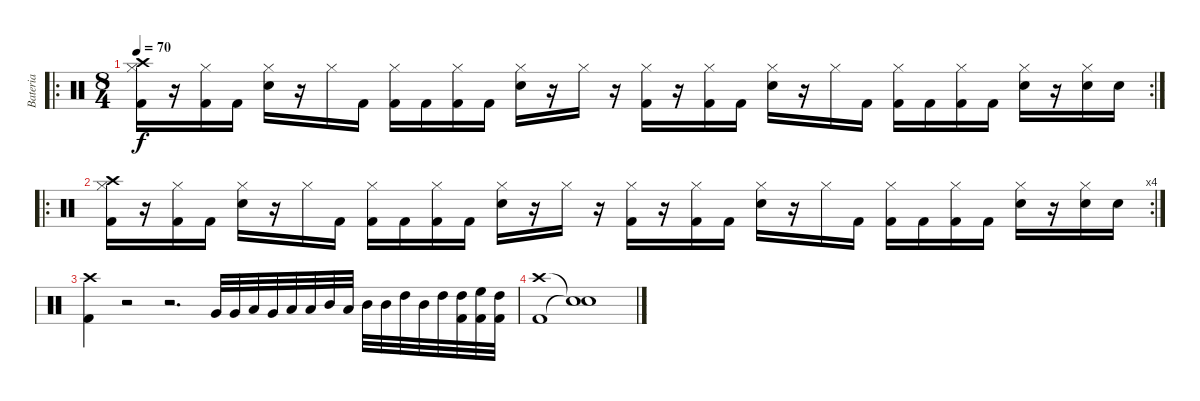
\track ("Bateria" "Bateria") {instrument percussion}
\staff {score}
\articulation defaults
\ro
\rc 2
\ts (8 4)
\tempo 70
\clef neutral
\ks c
("Crash high (hit)" "Hi-Hat (closed)" "Kick (hit) 2").16{dy f} r.16 ("Hi-Hat (closed)" "Kick (hit) 2").16 "Kick (hit) 2".16 ("Hi-Hat (closed)" "Snare (hit) 2").16 r.16 "Hi-Hat (closed)".16 "Kick (hit) 2".16 ("Hi-Hat (closed)" "Kick (hit) 2").16 "Kick (hit) 2".16 ("Hi-Hat (closed)" "Kick (hit) 2").16 "Kick (hit) 2".16 ("Hi-Hat (closed)" "Snare (hit) 2").16 r.16 "Hi-Hat (closed)".16 r.16 ("Hi-Hat (closed)" "Kick (hit) 2").16 r.16 ("Hi-Hat (closed)" "Kick (hit) 2").16 "Kick (hit) 2".16 ("Hi-Hat (closed)" "Snare (hit) 2").16 r.16 "Hi-Hat (closed)".16 "Kick (hit) 2".16 ("Hi-Hat (closed)" "Kick (hit) 2").16 "Kick (hit) 2".16 ("Hi-Hat (closed)" "Kick (hit) 2").16 "Kick (hit) 2".16 ("Hi-Hat (closed)" "Snare (hit) 2").16 r.16 ("Hi-Hat (closed)" "Snare (hit) 2").16 "Snare (hit) 2".16 |
\ro
\rc 4
("Crash high (hit)" "Hi-Hat (closed)" "Kick (hit) 2").16 r.16 ("Hi-Hat (closed)" "Kick (hit) 2").16 "Kick (hit) 2".16 ("Hi-Hat (closed)" "Snare (hit) 2").16 r.16 "Hi-Hat (closed)".16 "Kick (hit) 2".16 ("Hi-Hat (closed)" "Kick (hit) 2").16 "Kick (hit) 2".16 ("Hi-Hat (closed)" "Kick (hit) 2").16 "Kick (hit) 2".16 ("Hi-Hat (closed)" "Snare (hit) 2").16 r.16 "Hi-Hat (closed)".16 r.16 ("Hi-Hat (closed)" "Kick (hit) 2").16 r.16 ("Hi-Hat (closed)" "Kick (hit) 2").16 "Kick (hit) 2".16 ("Hi-Hat (closed)" "Snare (hit) 2").16 r.16 "Hi-Hat (closed)".16 "Kick (hit) 2".16 ("Hi-Hat (closed)" "Kick (hit) 2").16 "Kick (hit) 2".16 ("Hi-Hat (closed)" "Kick (hit) 2").16 "Kick (hit) 2".16 ("Hi-Hat (closed)" "Snare (hit) 2").16 r.16 ("Hi-Hat (closed)" "Snare (hit) 2").16 "Snare (hit) 2".16 |
("Crash high (hit)" "Kick (hit) 2").4 r.2 r.2{d} "Very Low Tom (hit)".32 "Very Low Tom (hit)".32 "Low Tom (hit)".32 "Very Low Tom (hit)".32 "Low Tom (hit)".32 "Low Tom (hit)".32 "Mid Tom (hit)".32 "Low Tom (hit)".32 "Mid Tom (hit)".32 "Mid Tom (hit)".32 "High Tom (hit)".32 "Mid Tom (hit)".32 "High Tom (hit)".32 ("High Tom (hit)" "Kick (hit) 2").32 ("High Floor Tom (hit)" "Kick (hit) 2").32 ("High Tom (hit)" "Kick (hit) 2").32 |
("Crash high (hit)" "Kick (hit) 2").1 ("Snare (hit)"{t} "Snare (hit)"{t}).1
